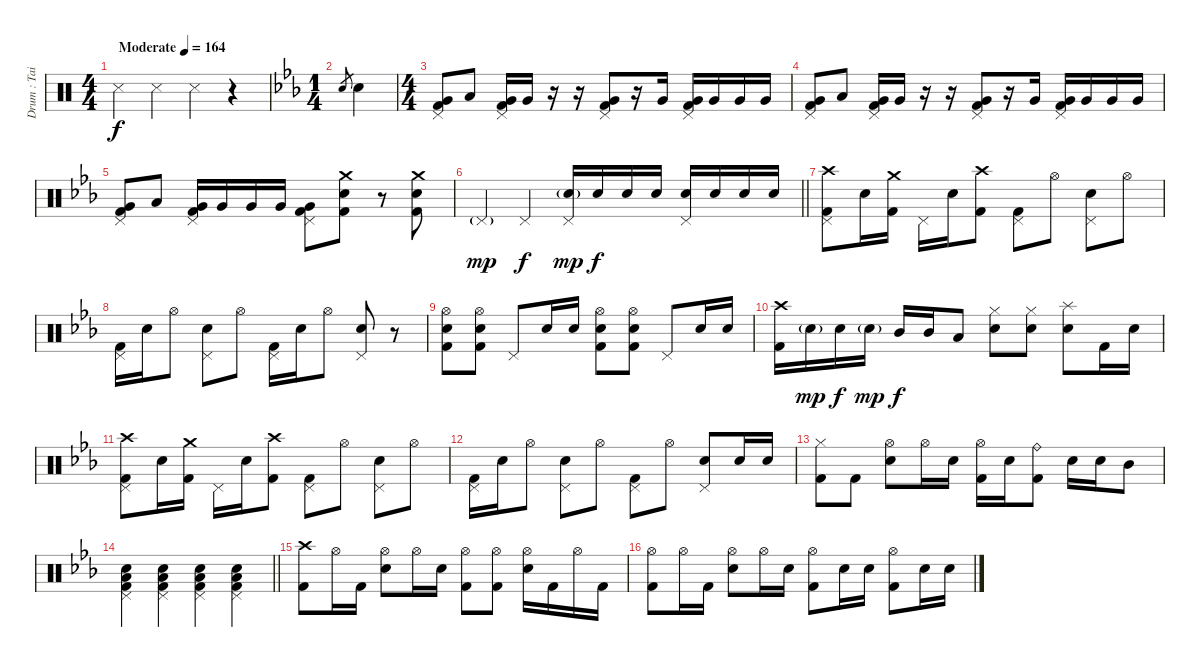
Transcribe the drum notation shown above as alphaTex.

\track ("Drum : Tainaka Ritsu - Chan" "Drum : Tai") {instrument percussion}
\staff {score}
\articulation defaults
\ts (4 4)
\tempo (164 "Moderate")
\clef neutral
\ks c "Snare (side stick) 3".4{dy f} "Snare (side stick) 3".4 "Snare (side stick) 3".4
r.4 |
\ts (1 4)
\ks eb "Electric Snare (hit)".8{gr} "Electric Snare (hit)".4
|
\ts (4 4)
("Pedal Hi-Hat (hit)" "Very Low Tom (hit)" "Kick (hit) 2").8 "Low Tom (hit)".8 ("Pedal Hi-Hat (hit)" "Very Low Tom (hit)" "Kick (hit) 2").16 "Very Low Tom (hit)".16 r.16 r.16 ("Pedal Hi-Hat (hit)" "Very Low Tom (hit)" "Kick (hit) 2").8 r.16 "Very Low Tom (hit)".16 ("Pedal Hi-Hat (hit)" "Very Low Tom (hit)" "Kick (hit) 2").16 "Very Low Tom (hit)".16 "Very Low Tom (hit)".16 "Very Low Tom (hit)".16 |
("Pedal Hi-Hat (hit)" "Very Low Tom (hit)" "Kick (hit) 2").8 "Low Tom (hit)".8 ("Pedal Hi-Hat (hit)" "Very Low Tom (hit)" "Kick (hit) 2").16 "Very Low Tom (hit)".16 r.16 r.16 ("Pedal Hi-Hat (hit)" "Very Low Tom (hit)" "Kick (hit) 2").8 r.16 "Very Low Tom (hit)".16 ("Pedal Hi-Hat (hit)" "Very Low Tom (hit)" "Kick (hit) 2").16 "Very Low Tom (hit)".16 "Very Low Tom (hit)".16 "Very Low Tom (hit)".16 |
("Pedal Hi-Hat (hit)" "Very Low Tom (hit)" "Kick (hit) 2").8 "Low Tom (hit)".8 ("Pedal Hi-Hat (hit)" "Very Low Tom (hit)" "Kick (hit) 2").16 "Very Low Tom (hit)".16 "Very Low Tom (hit)".16 "Very Low Tom (hit)".16 ("Pedal Hi-Hat (hit)" "Very Low Tom (hit)" "Kick (hit) 2").8 ("Crash medium (hit)" "Electric Snare (hit)" "Kick (hit) 2").8 r.8 ("Crash medium (hit)" "Electric Snare (hit)" "Kick (hit) 2").8 |
\barLineRight lightlight "Pedal Hi-Hat (hit)"{g}.4{dy mp} "Pedal Hi-Hat (hit)".4{dy f}
("Pedal Hi-Hat (hit)" "Electric Snare (hit)"{g}).16{dy mp} "Electric Snare (hit)".16{dy f} "Electric Snare (hit)".16 "Electric Snare (hit)".16 ("Pedal Hi-Hat (hit)" "Electric Snare (hit)").16 "Electric Snare (hit)".16 "Electric Snare (hit)".16 "Electric Snare (hit)".16 |
("Crash high (hit)" "Pedal Hi-Hat (hit)" "Kick (hit) 2").8 "Electric Snare (hit)".16 ("Crash medium (hit)" "Kick (hit) 2").16 "Pedal Hi-Hat (hit)".16 "Electric Snare (hit)".16 ("Crash high (hit)" "Kick (hit) 2").8 ("Pedal Hi-Hat (hit)" "Kick (hit) 2").8 "Hi-Hat (open)".8 ("Pedal Hi-Hat (hit)" "Electric Snare (hit)").8 "Hi-Hat (open)".8 |
("Pedal Hi-Hat (hit)" "Kick (hit) 2").16 "Electric Snare (hit)".16 "Hi-Hat (open)".8 ("Pedal Hi-Hat (hit)" "Electric Snare (hit)").8 "Hi-Hat (open)".8 ("Pedal Hi-Hat (hit)" "Kick (hit) 2").16 "Electric Snare (hit)".16 "Hi-Hat (open)".8 ("Pedal Hi-Hat (hit)" "Electric Snare (hit)").8 r.8 |
("Hi-Hat (open)" "Electric Snare (hit)" "Kick (hit) 2").8 ("Hi-Hat (open)" "Electric Snare (hit)" "Kick (hit) 2").8 "Pedal Hi-Hat (hit)".8 "Electric Snare (hit)".16 "Electric Snare (hit)".16 ("Hi-Hat (open)" "Electric Snare (hit)" "Kick (hit) 2").8 ("Hi-Hat (open)" "Electric Snare (hit)" "Kick (hit) 2").8 "Pedal Hi-Hat (hit)".8 "Electric Snare (hit)".16 "Electric Snare (hit)".16 |
("Crash high (hit)" "Kick (hit) 2").16 "Electric Snare (hit)"{g}.16{dy mp} "Electric Snare (hit)".16{dy f} "Electric Snare (hit)"{g}.16{dy mp} "Mid Tom (hit)".16{dy f} "Mid Tom (hit)".16 "Low Tom (hit)".8 ("Hi-Hat (closed)" "Electric Snare (hit)").8 ("Hi-Hat (closed)" "Electric Snare (hit)").8 ("Splash (hit)" "Electric Snare (hit)").8 "Kick (hit) 2".16 "Electric Snare (hit)".16 |
("Crash high (hit)" "Pedal Hi-Hat (hit)" "Kick (hit) 2").8 "Electric Snare (hit)".16 ("Crash medium (hit)" "Kick (hit) 2").16 "Pedal Hi-Hat (hit)".16 "Electric Snare (hit)".16 ("Crash high (hit)" "Kick (hit) 2").8 ("Pedal Hi-Hat (hit)" "Kick (hit) 2").8 "Hi-Hat (open)".8 ("Pedal Hi-Hat (hit)" "Electric Snare (hit)").8 "Hi-Hat (open)".8 |
("Pedal Hi-Hat (hit)" "Kick (hit) 2").16 "Electric Snare (hit)".16 "Hi-Hat (open)".8 ("Pedal Hi-Hat (hit)" "Electric Snare (hit)").8 "Hi-Hat (open)".8 ("Pedal Hi-Hat (hit)" "Kick (hit) 2").8 "Hi-Hat (open)".8 ("Pedal Hi-Hat (hit)" "Electric Snare (hit)").8 "Electric Snare (hit)".16 "Electric Snare (hit)".16 |
("Hi-Hat (closed)" "Kick (hit) 2").8 "Kick (hit) 2".8 ("Hi-Hat (open)" "Electric Snare (hit)").8 "Hi-Hat (open)".16 "Electric Snare (hit)".16 ("Hi-Hat (open)" "Kick (hit) 2").16 "Electric Snare (hit)".16 ("Ride (bell)" "Kick (hit) 2").8 "Electric Snare (hit)".16 "Electric Snare (hit)".16 "Mid Tom (hit)".8 |
\barLineRight lightlight
("Pedal Hi-Hat (hit)" "Electric Snare (hit)" "Low Floor Tom (hit)" "Kick (hit) 2").4 ("Pedal Hi-Hat (hit)" "Electric Snare (hit)" "Low Floor Tom (hit)" "Kick (hit) 2").4 ("Pedal Hi-Hat (hit)" "Electric Snare (hit)" "Low Floor Tom (hit)" "Kick (hit) 2").4 ("Pedal Hi-Hat (hit)" "Electric Snare (hit)" "Low Floor Tom (hit)" "Kick (hit) 2").4 |
("Crash high (hit)" "Kick (hit) 2").8 "Hi-Hat (open)".16 "Kick (hit) 2".16 ("Hi-Hat (open)" "Electric Snare (hit)").8 "Hi-Hat (open)".16 "Electric Snare (hit)".16 ("Hi-Hat (open)" "Kick (hit) 2").8 ("Hi-Hat (open)" "Kick (hit) 2").8 ("Hi-Hat (open)" "Electric Snare (hit)").16 "Kick (hit) 2".16 "Hi-Hat (open)".16 "Kick (hit) 2".16 |
("Hi-Hat (open)" "Kick (hit) 2").8 "Hi-Hat (open)".16 "Kick (hit) 2".16 ("Hi-Hat (open)" "Electric Snare (hit)").8 "Hi-Hat (open)".16 "Electric Snare (hit)".16 ("Hi-Hat (open)" "Kick (hit) 2").8 "Electric Snare (hit)".16 "Electric Snare (hit)".16 ("Hi-Hat (open)" "Kick (hit) 2").8 "Electric Snare (hit)".16 "Electric Snare (hit)".16
